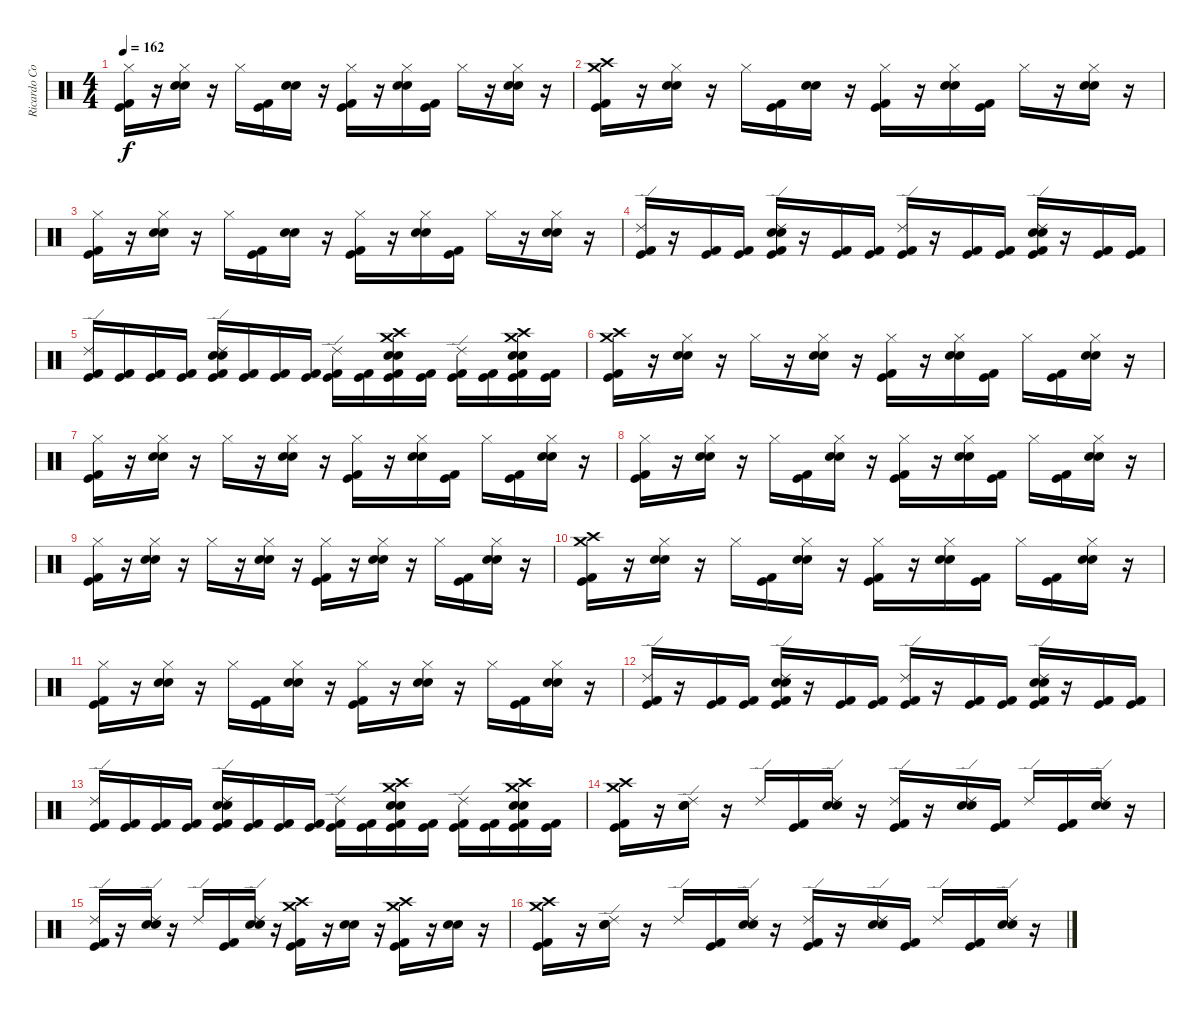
\track ("Ricardo Confessori" "Ricardo Co") {instrument percussion}
\staff {score}
\articulation defaults
\ts (4 4)
\tempo 162
\clef neutral
\ks c
("Hi-Hat (closed)" "Kick (hit) 2" "Kick (hit)").16{dy f} r.16 ("Hi-Hat (closed)" "Electric Snare (hit)" "Snare (hit) 2").16 r.16 "Hi-Hat (closed)".16 ("Kick (hit) 2" "Kick (hit)").16 ("Electric Snare (hit)" "Snare (hit) 2").16 r.16 ("Hi-Hat (closed)" "Kick (hit) 2" "Kick (hit)").16 r.16 ("Hi-Hat (closed)" "Electric Snare (hit)" "Snare (hit) 2").16 ("Kick (hit) 2" "Kick (hit)").16 "Hi-Hat (closed)".16 r.16 ("Hi-Hat (closed)" "Electric Snare (hit)" "Snare (hit) 2").16 r.16 |
("Crash medium (hit)" "Crash high (hit)" "Kick (hit) 2" "Kick (hit)").16 r.16 ("Hi-Hat (closed)" "Electric Snare (hit)" "Snare (hit) 2").16 r.16 "Hi-Hat (closed)".16 ("Kick (hit) 2" "Kick (hit)").16 ("Electric Snare (hit)" "Snare (hit) 2").16 r.16 ("Hi-Hat (closed)" "Kick (hit) 2" "Kick (hit)").16 r.16 ("Hi-Hat (closed)" "Electric Snare (hit)" "Snare (hit) 2").16 ("Kick (hit) 2" "Kick (hit)").16 "Hi-Hat (closed)".16 r.16 ("Hi-Hat (closed)" "Electric Snare (hit)" "Snare (hit) 2").16 r.16 |
("Hi-Hat (closed)" "Kick (hit) 2" "Kick (hit)").16 r.16 ("Hi-Hat (closed)" "Electric Snare (hit)" "Snare (hit) 2").16 r.16 "Hi-Hat (closed)".16 ("Kick (hit) 2" "Kick (hit)").16 ("Electric Snare (hit)" "Snare (hit) 2").16 r.16 ("Hi-Hat (closed)" "Kick (hit) 2" "Kick (hit)").16 r.16 ("Hi-Hat (closed)" "Electric Snare (hit)" "Snare (hit) 2").16 ("Kick (hit) 2" "Kick (hit)").16 "Hi-Hat (closed)".16 r.16 ("Hi-Hat (closed)" "Electric Snare (hit)" "Snare (hit) 2").16 r.16 |
("Ride (edge) 2" "Kick (hit) 2" "Kick (hit)").16 r.16 ("Kick (hit) 2" "Kick (hit)").16 ("Kick (hit) 2" "Kick (hit)").16 ("Electric Snare (hit)" "Snare (hit) 2" "Ride (edge) 2" "Kick (hit) 2" "Kick (hit)").16 r.16 ("Kick (hit) 2" "Kick (hit)").16 ("Kick (hit) 2" "Kick (hit)").16 ("Ride (edge) 2" "Kick (hit) 2" "Kick (hit)").16 r.16 ("Kick (hit) 2" "Kick (hit)").16 ("Kick (hit) 2" "Kick (hit)").16 ("Electric Snare (hit)" "Snare (hit) 2" "Ride (edge) 2" "Kick (hit) 2" "Kick (hit)").16 r.16 ("Kick (hit) 2" "Kick (hit)").16 ("Kick (hit) 2" "Kick (hit)").16 |
("Ride (edge) 2" "Kick (hit) 2" "Kick (hit)").16 ("Kick (hit) 2" "Kick (hit)").16 ("Kick (hit) 2" "Kick (hit)").16 ("Kick (hit) 2" "Kick (hit)").16 ("Electric Snare (hit)" "Snare (hit) 2" "Ride (edge) 2" "Kick (hit) 2" "Kick (hit)").16 ("Kick (hit) 2" "Kick (hit)").16 ("Kick (hit) 2" "Kick (hit)").16 ("Kick (hit) 2" "Kick (hit)").16 ("Ride (edge) 2" "Kick (hit) 2" "Kick (hit)").16 ("Kick (hit) 2" "Kick (hit)").16 ("Crash high (hit)" "Electric Snare (hit)" "Snare (hit) 2" "Crash medium (hit)" "Kick (hit) 2" "Kick (hit)").16 ("Kick (hit) 2" "Kick (hit)").16 ("Ride (edge) 2" "Kick (hit) 2" "Kick (hit)").16 ("Kick (hit) 2" "Kick (hit)").16 ("Electric Snare (hit)" "Snare (hit) 2" "Crash high (hit)" "Crash medium (hit)" "Kick (hit) 2" "Kick (hit)").16 ("Kick (hit) 2" "Kick (hit)").16 |
("Crash high (hit)" "Crash medium (hit)" "Kick (hit) 2" "Kick (hit)").16 r.16 ("Hi-Hat (closed)" "Electric Snare (hit)" "Snare (hit) 2").16 r.16 "Hi-Hat (closed)".16 r.16 ("Hi-Hat (closed)" "Electric Snare (hit)" "Snare (hit) 2").16 r.16 ("Hi-Hat (closed)" "Kick (hit) 2" "Kick (hit)").16 r.16 ("Hi-Hat (closed)" "Electric Snare (hit)" "Snare (hit) 2").16 ("Kick (hit) 2" "Kick (hit)").16 "Hi-Hat (closed)".16 ("Kick (hit) 2" "Kick (hit)").16 ("Hi-Hat (closed)" "Electric Snare (hit)" "Snare (hit) 2").16 r.16 |
("Hi-Hat (closed)" "Kick (hit) 2" "Kick (hit)").16 r.16 ("Hi-Hat (closed)" "Electric Snare (hit)" "Snare (hit) 2").16 r.16 "Hi-Hat (closed)".16 r.16 ("Electric Snare (hit)" "Hi-Hat (closed)" "Snare (hit) 2").16 r.16 ("Hi-Hat (closed)" "Kick (hit) 2" "Kick (hit)").16 r.16 ("Hi-Hat (closed)" "Electric Snare (hit)" "Snare (hit) 2").16 ("Kick (hit) 2" "Kick (hit)").16 "Hi-Hat (closed)".16 ("Kick (hit) 2" "Kick (hit)").16 ("Hi-Hat (closed)" "Electric Snare (hit)" "Snare (hit) 2").16 r.16 |
("Hi-Hat (closed)" "Kick (hit) 2" "Kick (hit)").16 r.16 ("Hi-Hat (closed)" "Electric Snare (hit)" "Snare (hit) 2").16 r.16 "Hi-Hat (closed)".16 ("Kick (hit) 2" "Kick (hit)").16 ("Electric Snare (hit)" "Hi-Hat (closed)" "Snare (hit) 2").16 r.16 ("Hi-Hat (closed)" "Kick (hit) 2" "Kick (hit)").16 r.16 ("Hi-Hat (closed)" "Electric Snare (hit)" "Snare (hit) 2").16 ("Kick (hit) 2" "Kick (hit)").16 "Hi-Hat (closed)".16 ("Kick (hit) 2" "Kick (hit)").16 ("Hi-Hat (closed)" "Electric Snare (hit)" "Snare (hit) 2").16 r.16 |
("Hi-Hat (closed)" "Kick (hit) 2" "Kick (hit)").16 r.16 ("Hi-Hat (closed)" "Electric Snare (hit)" "Snare (hit) 2").16 r.16 "Hi-Hat (closed)".16 r.16 ("Electric Snare (hit)" "Hi-Hat (closed)" "Snare (hit) 2").16 r.16 ("Hi-Hat (closed)" "Kick (hit) 2" "Kick (hit)").16 r.16 ("Hi-Hat (closed)" "Electric Snare (hit)" "Snare (hit) 2").16 r.16 "Hi-Hat (closed)".16 ("Kick (hit) 2" "Kick (hit)").16 ("Hi-Hat (closed)" "Electric Snare (hit)" "Snare (hit) 2").16 r.16 |
("Crash medium (hit)" "Crash high (hit)" "Kick (hit) 2" "Kick (hit)").16 r.16 ("Hi-Hat (closed)" "Electric Snare (hit)" "Snare (hit) 2").16 r.16 "Hi-Hat (closed)".16 ("Kick (hit) 2" "Kick (hit)").16 ("Electric Snare (hit)" "Hi-Hat (closed)" "Snare (hit) 2").16 r.16 ("Hi-Hat (closed)" "Kick (hit) 2" "Kick (hit)").16 r.16 ("Hi-Hat (closed)" "Electric Snare (hit)" "Snare (hit) 2").16 ("Kick (hit) 2" "Kick (hit)").16 "Hi-Hat (closed)".16 ("Kick (hit) 2" "Kick (hit)").16 ("Hi-Hat (closed)" "Electric Snare (hit)" "Snare (hit) 2").16 r.16 |
("Hi-Hat (closed)" "Kick (hit) 2" "Kick (hit)").16 r.16 ("Hi-Hat (closed)" "Electric Snare (hit)" "Snare (hit) 2").16 r.16 "Hi-Hat (closed)".16 ("Kick (hit) 2" "Kick (hit)").16 ("Electric Snare (hit)" "Hi-Hat (closed)" "Snare (hit) 2").16 r.16 ("Hi-Hat (closed)" "Kick (hit) 2" "Kick (hit)").16 r.16 ("Hi-Hat (closed)" "Electric Snare (hit)" "Snare (hit) 2").16 r.16 "Hi-Hat (closed)".16 ("Kick (hit) 2" "Kick (hit)").16 ("Hi-Hat (closed)" "Electric Snare (hit)" "Snare (hit) 2").16 r.16 |
("Ride (edge) 2" "Kick (hit) 2" "Kick (hit)").16 r.16 ("Kick (hit) 2" "Kick (hit)").16 ("Kick (hit) 2" "Kick (hit)").16 ("Electric Snare (hit)" "Snare (hit) 2" "Ride (edge) 2" "Kick (hit) 2" "Kick (hit)").16 r.16 ("Kick (hit) 2" "Kick (hit)").16 ("Kick (hit) 2" "Kick (hit)").16 ("Ride (edge) 2" "Kick (hit) 2" "Kick (hit)").16 r.16 ("Kick (hit) 2" "Kick (hit)").16 ("Kick (hit) 2" "Kick (hit)").16 ("Electric Snare (hit)" "Snare (hit) 2" "Ride (edge) 2" "Kick (hit) 2" "Kick (hit)").16 r.16 ("Kick (hit) 2" "Kick (hit)").16 ("Kick (hit) 2" "Kick (hit)").16 |
("Ride (edge) 2" "Kick (hit) 2" "Kick (hit)").16 ("Kick (hit) 2" "Kick (hit)").16 ("Kick (hit) 2" "Kick (hit)").16 ("Kick (hit) 2" "Kick (hit)").16 ("Electric Snare (hit)" "Snare (hit) 2" "Ride (edge) 2" "Kick (hit) 2" "Kick (hit)").16 ("Kick (hit) 2" "Kick (hit)").16 ("Kick (hit) 2" "Kick (hit)").16 ("Kick (hit) 2" "Kick (hit)").16 ("Ride (edge) 2" "Kick (hit) 2" "Kick (hit)").16 ("Kick (hit) 2" "Kick (hit)").16 ("Crash high (hit)" "Electric Snare (hit)" "Snare (hit) 2" "Crash medium (hit)" "Kick (hit) 2" "Kick (hit)").16 ("Kick (hit) 2" "Kick (hit)").16 ("Ride (edge) 2" "Kick (hit) 2" "Kick (hit)").16 ("Kick (hit) 2" "Kick (hit)").16 ("Electric Snare (hit)" "Snare (hit) 2" "Crash high (hit)" "Crash medium (hit)" "Kick (hit) 2" "Kick (hit)").16 ("Kick (hit) 2" "Kick (hit)").16 |
("Crash high (hit)" "Crash medium (hit)" "Kick (hit) 2" "Kick (hit)").16 r.16 ("Ride (edge) 2" "Electric Snare (hit)" "Snare (hit) 2").16 r.16 "Ride (edge) 2".16 ("Kick (hit) 2" "Kick (hit)").16 ("Ride (edge) 2" "Electric Snare (hit)" "Snare (hit) 2").16 r.16 ("Ride (edge) 2" "Kick (hit) 2" "Kick (hit)").16 r.16 ("Ride (edge) 2" "Electric Snare (hit)" "Snare (hit) 2").16 ("Kick (hit) 2" "Kick (hit)").16 "Ride (edge) 2".16 ("Kick (hit) 2" "Kick (hit)").16 ("Ride (edge) 2" "Electric Snare (hit)" "Snare (hit) 2").16 r.16 |
("Ride (edge) 2" "Kick (hit) 2" "Kick (hit)").16 r.16 ("Ride (edge) 2" "Electric Snare (hit)" "Snare (hit) 2").16 r.16 "Ride (edge) 2".16 ("Kick (hit) 2" "Kick (hit)").16 ("Ride (edge) 2" "Electric Snare (hit)" "Snare (hit) 2").16 r.16 ("Crash high (hit)" "Crash medium (hit)" "Kick (hit) 2" "Kick (hit)").16 r.16 ("Electric Snare (hit)" "Snare (hit) 2").16 r.16 ("Crash high (hit)" "Crash medium (hit)" "Kick (hit)" "Kick (hit) 2").16 r.16 ("Snare (hit) 2" "Electric Snare (hit)").16 r.16 |
("Crash medium (hit)" "Crash high (hit)" "Kick (hit) 2" "Kick (hit)").16 r.16 ("Ride (edge) 2" "Electric Snare (hit)" "Snare (hit) 2").16 r.16 "Ride (edge) 2".16 ("Kick (hit) 2" "Kick (hit)").16 ("Ride (edge) 2" "Electric Snare (hit)" "Snare (hit) 2").16 r.16 ("Ride (edge) 2" "Kick (hit) 2" "Kick (hit)").16 r.16 ("Ride (edge) 2" "Electric Snare (hit)" "Snare (hit) 2").16 ("Kick (hit) 2" "Kick (hit)").16 "Ride (edge) 2".16 ("Kick (hit) 2" "Kick (hit)").16 ("Ride (edge) 2" "Electric Snare (hit)" "Snare (hit) 2").16 r.16
